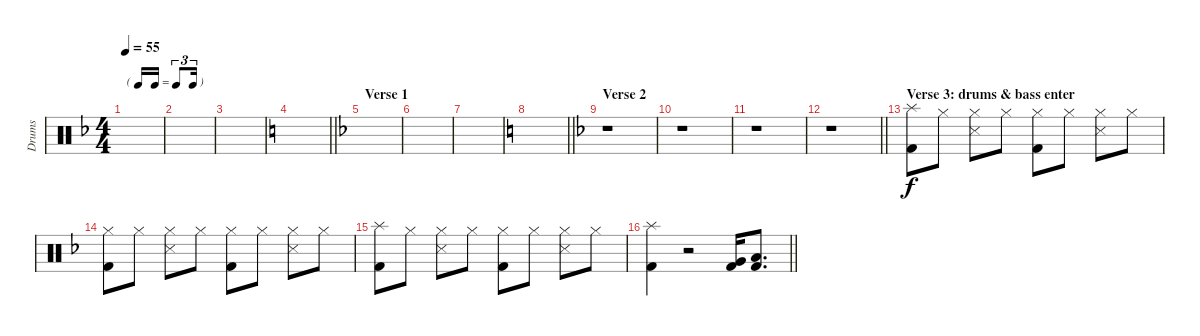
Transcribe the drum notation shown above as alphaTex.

\track ("Drums" "Drums") {instrument percussion}
\staff {score}
\articulation defaults
\ts (4 4)
\tf triplet16th
\tempo 55
\clef neutral
\ks dminor
|
|
|
\barLineRight lightlight
\ks c
|
\section ("" "Verse 1")
\ks dminor
|
|
|
\barLineRight lightlight
\ks c
|
\section ("" "Verse 2")
\ks dminor
r.1 |
r.1 |
r.1 |
\barLineRight lightlight
r.1 |
\section ("" "Verse 3: drums & bass enter")
("Splash (hit)" "Kick (hit) 2").8 "Hi-Hat (closed)".8 ("Hi-Hat (closed)" "Snare (side stick) 3").8 "Hi-Hat (closed)".8 ("Hi-Hat (closed)" "Kick (hit) 2").8 "Hi-Hat (closed)".8 ("Hi-Hat (closed)" "Snare (side stick) 3").8 "Hi-Hat (closed)".8 |
("Hi-Hat (closed)" "Kick (hit) 2").8 "Hi-Hat (closed)".8 ("Hi-Hat (closed)" "Snare (side stick) 3").8 "Hi-Hat (closed)".8 ("Hi-Hat (closed)" "Kick (hit) 2").8 "Hi-Hat (closed)".8 ("Hi-Hat (closed)" "Snare (side stick) 3").8 "Hi-Hat (closed)".8 |
("Splash (hit)" "Kick (hit) 2").8 "Hi-Hat (closed)".8 ("Hi-Hat (closed)" "Snare (side stick) 3").8 "Hi-Hat (closed)".8 ("Hi-Hat (closed)" "Kick (hit) 2").8 "Hi-Hat (closed)".8 ("Hi-Hat (closed)" "Snare (side stick) 3").8 "Hi-Hat (closed)".8 |
\barLineRight lightlight
("Splash (hit)" "Kick (hit) 2").4 r.2 ("Very Low Tom (hit)" "Kick (hit) 2").16 ("Low Floor Tom (hit)" "Kick (hit) 2").8{d}
